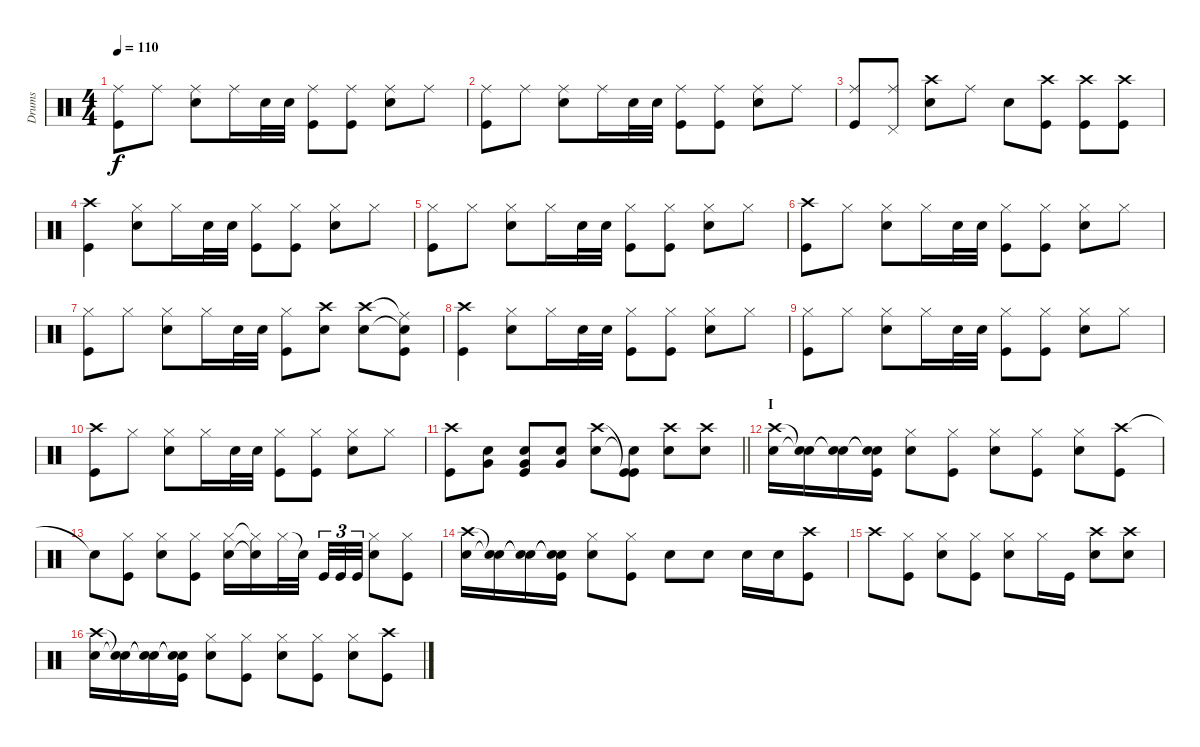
\track ("Drums" "Drums") {instrument percussion}
\staff {score}
\articulation defaults
\ts (4 4)
\tempo 110
\clef neutral
\ks c
("Ride (middle)" "Kick (hit)").8{dy f} "Ride (middle)".8 ("Ride (middle)" "Snare (hit) 2").8 "Ride (middle)".16 "Snare (hit) 2".32 "Snare (hit) 2".32 ("Ride (middle)" "Kick (hit)").8 ("Ride (middle)" "Kick (hit)").8 ("Ride (middle)" "Snare (hit) 2").8 "Ride (middle)".8 |
("Ride (middle)" "Kick (hit)").8 "Ride (middle)".8 ("Ride (middle)" "Snare (hit) 2").8 "Ride (middle)".16 "Snare (hit) 2".32 "Snare (hit) 2".32 ("Ride (middle)" "Kick (hit)").8 ("Ride (middle)" "Kick (hit)").8 ("Ride (middle)" "Snare (hit) 2").8 "Ride (middle)".8 |
("Ride (middle)" "Kick (hit)").8 ("Ride (middle)" "Pedal Hi-Hat (hit)").8 ("Crash high (hit)" "Snare (hit) 2").8 "Ride (middle)".8 "Snare (hit) 2".8 ("Crash high (hit)" "Kick (hit)").8 ("Crash high (hit)" "Kick (hit)").8 ("Crash high (hit)" "Kick (hit)").8 |
("Crash high (hit)" "Kick (hit)").4 ("Hi-Hat (closed)" "Snare (hit) 2").8 "Hi-Hat (closed)".16 "Snare (hit) 2".32 "Snare (hit) 2".32 ("Hi-Hat (closed)" "Kick (hit)").8 ("Hi-Hat (closed)" "Kick (hit)").8 ("Hi-Hat (closed)" "Snare (hit) 2").8 "Hi-Hat (closed)".8 |
("Hi-Hat (closed)" "Kick (hit)").8 "Hi-Hat (closed)".8 ("Hi-Hat (closed)" "Snare (hit) 2").8 "Hi-Hat (closed)".16 "Snare (hit) 2".32 "Snare (hit) 2".32 ("Hi-Hat (closed)" "Kick (hit)").8 ("Hi-Hat (closed)" "Kick (hit)").8 ("Hi-Hat (closed)" "Snare (hit) 2").8 "Hi-Hat (closed)".8 |
("Crash high (hit)" "Kick (hit)").8 "Hi-Hat (closed)".8 ("Hi-Hat (closed)" "Snare (hit) 2").8 "Hi-Hat (closed)".16 "Snare (hit) 2".32 "Snare (hit) 2".32 ("Hi-Hat (closed)" "Kick (hit)").8 ("Hi-Hat (closed)" "Kick (hit)").8 ("Hi-Hat (closed)" "Snare (hit) 2").8 "Hi-Hat (closed)".8 |
("Hi-Hat (closed)" "Kick (hit)").8 "Hi-Hat (closed)".8 ("Hi-Hat (closed)" "Snare (hit) 2").8 "Hi-Hat (closed)".16 "Snare (hit) 2".32 "Snare (hit) 2".32 ("Hi-Hat (closed)" "Kick (hit)").8 ("Crash high (hit)" "Snare (hit) 2").8 ("Crash high (hit)" "Snare (hit) 2").8 ("Ride (middle)"{t} "Snare (hit)"{t} "Kick (hit)").8 |
("Crash high (hit)" "Kick (hit)").4 ("Hi-Hat (closed)" "Snare (hit) 2").8 "Hi-Hat (closed)".16 "Snare (hit) 2".32 "Snare (hit) 2".32 ("Hi-Hat (closed)" "Kick (hit)").8 ("Hi-Hat (closed)" "Kick (hit)").8 ("Hi-Hat (closed)" "Snare (hit) 2").8 "Hi-Hat (closed)".8 |
("Hi-Hat (closed)" "Kick (hit)").8 "Hi-Hat (closed)".8 ("Hi-Hat (closed)" "Snare (hit) 2").8 "Hi-Hat (closed)".16 "Snare (hit) 2".32 "Snare (hit) 2".32 ("Hi-Hat (closed)" "Kick (hit)").8 ("Hi-Hat (closed)" "Kick (hit)").8 ("Hi-Hat (closed)" "Snare (hit) 2").8 "Hi-Hat (closed)".8 |
("Crash high (hit)" "Kick (hit)").8 "Hi-Hat (closed)".8 ("Hi-Hat (closed)" "Snare (hit) 2").8 "Hi-Hat (closed)".16 "Snare (hit) 2".32 "Snare (hit) 2".32 ("Hi-Hat (closed)" "Kick (hit)").8 ("Hi-Hat (closed)" "Kick (hit)").8 ("Hi-Hat (closed)" "Snare (hit) 2").8 "Hi-Hat (closed)".8 |
\barLineRight lightlight
("Crash high (hit)" "Kick (hit)").8 ("Snare (hit) 2" "Very Low Tom (hit)").8 ("Snare (hit) 2" "Very Low Tom (hit)" "Kick (hit)").8 ("Snare (hit) 2" "Very Low Tom (hit)").8 ("Crash high (hit)" "Snare (hit) 2").8 ("Kick (hit)"{t} "Snare (hit) 2"{t} "Kick (hit)").8 ("Crash high (hit)" "Snare (hit) 2").8 ("Crash high (hit)" "Snare (hit) 2").8 |
\section ("" "I")
("Crash high (hit)" "Snare (hit) 2").16 ("Snare (hit)"{t} "Snare (hit)"{t}).16 ("Snare (hit)"{t} "Snare (hit)"{t}).16 ("Snare (hit)"{t} "Snare (hit)"{t} "Kick (hit)").16 ("Hi-Hat (closed)" "Snare (hit) 2").8 ("Hi-Hat (closed)" "Kick (hit)").8 ("Hi-Hat (closed)" "Snare (hit) 2").8 ("Hi-Hat (closed)" "Kick (hit)").8 ("Hi-Hat (closed)" "Snare (hit) 2").8 ("Crash high (hit)" "Kick (hit)").8 |
"Snare (hit)"{t}.8 ("Hi-Hat (closed)" "Kick (hit)").8 ("Hi-Hat (closed)" "Snare (hit) 2").8 ("Hi-Hat (closed)" "Kick (hit)").8 ("Hi-Hat (closed)" "Snare (hit) 2").16 ("Hi-Hat (closed)"{t} "Snare (hit)"{t}).16 "Hi-Hat (closed)".32 "Snare (hit)"{t}.32{beam splitsecondary} "Kick (hit)".32{tu (3 2)} "Kick (hit)".32{tu (3 2)} "Kick (hit)".32{tu (3 2)} ("Hi-Hat (closed)" "Snare (hit) 2").8 ("Hi-Hat (closed)" "Kick (hit)").8 |
("Crash high (hit)" "Snare (hit) 2").16 ("Snare (hit)"{t} "Snare (hit)"{t}).16 ("Snare (hit)"{t} "Snare (hit)"{t}).16 ("Snare (hit)"{t} "Snare (hit)"{t} "Kick (hit)").16 ("Hi-Hat (closed)" "Snare (hit) 2").8 ("Hi-Hat (closed)" "Kick (hit)").8 "Snare (hit) 2".8 "Snare (hit) 2".8 "Snare (hit) 2".16 "Snare (hit) 2".16 ("Crash high (hit)" "Kick (hit)").8 |
"Crash high (hit)".8 ("Hi-Hat (closed)" "Kick (hit)").8 ("Hi-Hat (closed)" "Snare (hit) 2").8 ("Hi-Hat (closed)" "Kick (hit)").8 ("Hi-Hat (closed)" "Snare (hit) 2").8 "Hi-Hat (closed)".16 "Kick (hit)".16 ("Crash high (hit)" "Snare (hit) 2").8 ("Crash high (hit)" "Snare (hit) 2").8 |
("Crash high (hit)" "Snare (hit) 2").16 ("Snare (hit)"{t} "Snare (hit)"{t}).16 ("Snare (hit)"{t} "Snare (hit)"{t}).16 ("Snare (hit)"{t} "Snare (hit)"{t} "Kick (hit)").16 ("Hi-Hat (closed)" "Snare (hit) 2").8 ("Hi-Hat (closed)" "Kick (hit)").8 ("Hi-Hat (closed)" "Snare (hit) 2").8 ("Hi-Hat (closed)" "Kick (hit)").8 ("Hi-Hat (closed)" "Snare (hit) 2").8 ("Crash high (hit)" "Kick (hit)").8
